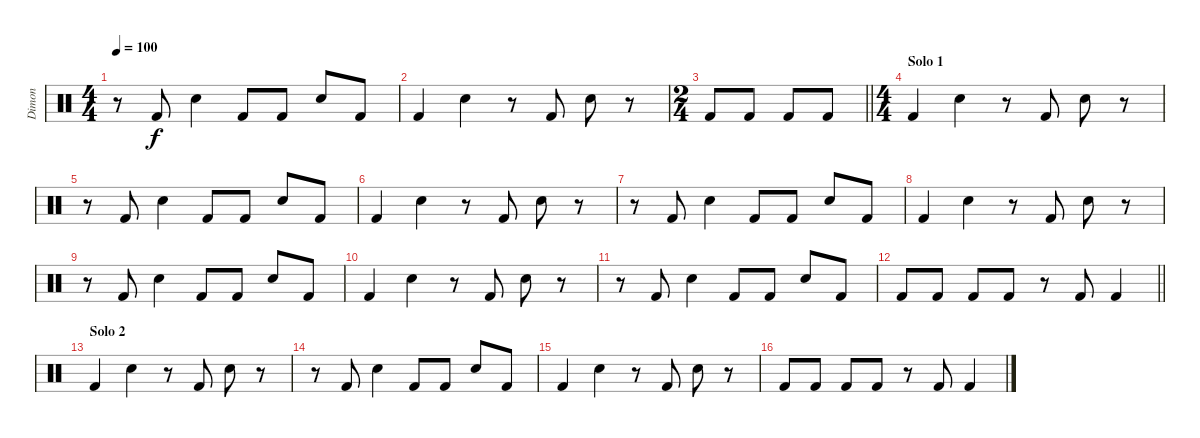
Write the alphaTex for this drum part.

\track ("Dimon" "Dimon") {instrument percussion}
\staff {score}
\articulation defaults
\ts (4 4)
\tempo 100
\clef neutral
\ks c
r.8{dy f} "Kick (hit) 2".8 "Electric Snare (hit)".4 "Kick (hit) 2".8 "Kick (hit) 2".8 "Electric Snare (hit)".8 "Kick (hit) 2".8 |
"Kick (hit) 2".4 "Electric Snare (hit)".4 r.8 "Kick (hit) 2".8 "Electric Snare (hit)".8 r.8 |
\ts (2 4)
\barLineRight lightlight "Kick (hit) 2".8 "Kick (hit) 2".8 "Kick (hit) 2".8 "Kick (hit) 2".8
|
\ts (4 4)
\section ("" "Solo 1")
"Kick (hit) 2".4 "Electric Snare (hit)".4 r.8 "Kick (hit) 2".8 "Electric Snare (hit)".8 r.8 |
r.8 "Kick (hit) 2".8 "Electric Snare (hit)".4 "Kick (hit) 2".8 "Kick (hit) 2".8 "Electric Snare (hit)".8 "Kick (hit) 2".8 |
"Kick (hit) 2".4 "Electric Snare (hit)".4 r.8 "Kick (hit) 2".8 "Electric Snare (hit)".8 r.8 |
r.8 "Kick (hit) 2".8 "Electric Snare (hit)".4 "Kick (hit) 2".8 "Kick (hit) 2".8 "Electric Snare (hit)".8 "Kick (hit) 2".8 |
"Kick (hit) 2".4 "Electric Snare (hit)".4 r.8 "Kick (hit) 2".8 "Electric Snare (hit)".8 r.8 |
r.8 "Kick (hit) 2".8 "Electric Snare (hit)".4 "Kick (hit) 2".8 "Kick (hit) 2".8 "Electric Snare (hit)".8 "Kick (hit) 2".8 |
"Kick (hit) 2".4 "Electric Snare (hit)".4 r.8 "Kick (hit) 2".8 "Electric Snare (hit)".8 r.8 |
r.8 "Kick (hit) 2".8 "Electric Snare (hit)".4 "Kick (hit) 2".8 "Kick (hit) 2".8 "Electric Snare (hit)".8 "Kick (hit) 2".8 |
\barLineRight lightlight "Kick (hit) 2".8 "Kick (hit) 2".8 "Kick (hit) 2".8 "Kick (hit) 2".8
r.8 "Kick (hit) 2".8 "Kick (hit) 2".4 |
\section ("" "Solo 2")
"Kick (hit) 2".4 "Electric Snare (hit)".4 r.8 "Kick (hit) 2".8 "Electric Snare (hit)".8 r.8 |
r.8 "Kick (hit) 2".8 "Electric Snare (hit)".4 "Kick (hit) 2".8 "Kick (hit) 2".8 "Electric Snare (hit)".8 "Kick (hit) 2".8 |
"Kick (hit) 2".4 "Electric Snare (hit)".4 r.8 "Kick (hit) 2".8 "Electric Snare (hit)".8 r.8 |
"Kick (hit) 2".8 "Kick (hit) 2".8 "Kick (hit) 2".8 "Kick (hit) 2".8 r.8 "Kick (hit) 2".8 "Kick (hit) 2".4
